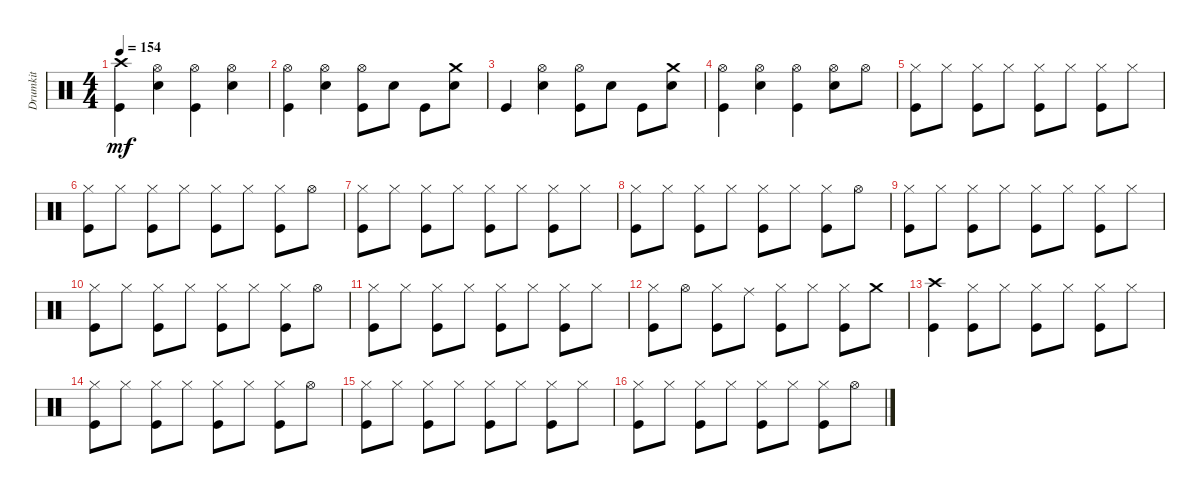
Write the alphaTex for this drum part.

\track ("Drumkit" "Drumkit") {instrument percussion}
\staff {score}
\articulation defaults
\ts (4 4)
\tempo 154
\clef neutral
\ks c
("Kick (hit)" "Crash high (hit)").4{dy mf} ("Snare (hit) 2" "Hi-Hat (open)").4 ("Kick (hit)" "Hi-Hat (open)").4 ("Snare (hit) 2" "Hi-Hat (open)").4 |
("Kick (hit)" "Hi-Hat (open)").4 ("Snare (hit) 2" "Hi-Hat (open)").4 ("Kick (hit)" "Hi-Hat (open)").8 "Snare (hit) 2".8 "Kick (hit)".8 ("Snare (hit) 2" "Crash medium (hit)").8 |
"Kick (hit)".4 ("Snare (hit) 2" "Hi-Hat (open)").4 ("Kick (hit)" "Hi-Hat (open)").8 "Snare (hit) 2".8 "Kick (hit)".8 ("Snare (hit) 2" "Crash medium (hit)").8 |
("Kick (hit)" "Hi-Hat (open)").4 ("Snare (hit) 2" "Hi-Hat (open)").4 ("Kick (hit)" "Hi-Hat (open)").4 ("Snare (hit) 2" "Hi-Hat (open)").8 "Hi-Hat (open)".8 |
("Kick (hit)" "Hi-Hat (closed)").8 "Hi-Hat (closed)".8 ("Kick (hit)" "Hi-Hat (closed)").8 "Hi-Hat (closed)".8 ("Kick (hit)" "Hi-Hat (closed)").8 "Hi-Hat (closed)".8 ("Kick (hit)" "Hi-Hat (closed)").8 "Hi-Hat (closed)".8 |
("Kick (hit)" "Hi-Hat (closed)").8 "Hi-Hat (closed)".8 ("Kick (hit)" "Hi-Hat (closed)").8 "Hi-Hat (closed)".8 ("Kick (hit)" "Hi-Hat (closed)").8 "Hi-Hat (closed)".8 ("Kick (hit)" "Hi-Hat (closed)").8 "Hi-Hat (open)".8 |
("Kick (hit)" "Hi-Hat (closed)").8 "Hi-Hat (closed)".8 ("Kick (hit)" "Hi-Hat (closed)").8 "Hi-Hat (closed)".8 ("Kick (hit)" "Hi-Hat (closed)").8 "Hi-Hat (closed)".8 ("Kick (hit)" "Hi-Hat (closed)").8 "Hi-Hat (closed)".8 |
("Kick (hit)" "Hi-Hat (closed)").8 "Hi-Hat (closed)".8 ("Kick (hit)" "Hi-Hat (closed)").8 "Hi-Hat (closed)".8 ("Kick (hit)" "Hi-Hat (closed)").8 "Hi-Hat (closed)".8 ("Kick (hit)" "Hi-Hat (closed)").8 "Hi-Hat (open)".8 |
("Kick (hit)" "Hi-Hat (closed)").8 "Hi-Hat (closed)".8 ("Kick (hit)" "Hi-Hat (closed)").8 "Hi-Hat (closed)".8 ("Kick (hit)" "Hi-Hat (closed)").8 "Hi-Hat (closed)".8 ("Kick (hit)" "Hi-Hat (closed)").8 "Hi-Hat (closed)".8 |
("Kick (hit)" "Hi-Hat (closed)").8 "Hi-Hat (closed)".8 ("Kick (hit)" "Hi-Hat (closed)").8 "Hi-Hat (closed)".8 ("Kick (hit)" "Hi-Hat (closed)").8 "Hi-Hat (closed)".8 ("Kick (hit)" "Hi-Hat (closed)").8 "Hi-Hat (open)".8 |
("Kick (hit)" "Hi-Hat (closed)").8 "Hi-Hat (closed)".8 ("Kick (hit)" "Hi-Hat (closed)").8 "Hi-Hat (closed)".8 ("Kick (hit)" "Hi-Hat (closed)").8 "Hi-Hat (closed)".8 ("Kick (hit)" "Hi-Hat (closed)").8 "Hi-Hat (closed)".8 |
("Kick (hit)" "Hi-Hat (closed)").8 "Hi-Hat (open)".8 ("Kick (hit)" "Hi-Hat (closed)").8 "Ride (middle)".8 ("Kick (hit)" "Hi-Hat (closed)").8 "Hi-Hat (closed)".8 ("Kick (hit)" "Hi-Hat (closed)").8 "Crash medium (hit)".8 |
("Kick (hit)" "Crash high (hit)").4 ("Kick (hit)" "Hi-Hat (closed)").8 "Hi-Hat (closed)".8 ("Kick (hit)" "Hi-Hat (closed)").8 "Hi-Hat (closed)".8 ("Kick (hit)" "Hi-Hat (closed)").8 "Hi-Hat (closed)".8 |
("Kick (hit)" "Hi-Hat (closed)").8 "Hi-Hat (closed)".8 ("Kick (hit)" "Hi-Hat (closed)").8 "Hi-Hat (closed)".8 ("Kick (hit)" "Hi-Hat (closed)").8 "Hi-Hat (closed)".8 ("Kick (hit)" "Hi-Hat (closed)").8 "Hi-Hat (open)".8 |
("Kick (hit)" "Hi-Hat (closed)").8 "Hi-Hat (closed)".8 ("Kick (hit)" "Hi-Hat (closed)").8 "Hi-Hat (closed)".8 ("Kick (hit)" "Hi-Hat (closed)").8 "Hi-Hat (closed)".8 ("Kick (hit)" "Hi-Hat (closed)").8 "Hi-Hat (closed)".8 |
("Kick (hit)" "Hi-Hat (closed)").8 "Hi-Hat (closed)".8 ("Kick (hit)" "Hi-Hat (closed)").8 "Hi-Hat (closed)".8 ("Kick (hit)" "Hi-Hat (closed)").8 "Hi-Hat (closed)".8 ("Kick (hit)" "Hi-Hat (closed)").8 "Hi-Hat (open)".8
